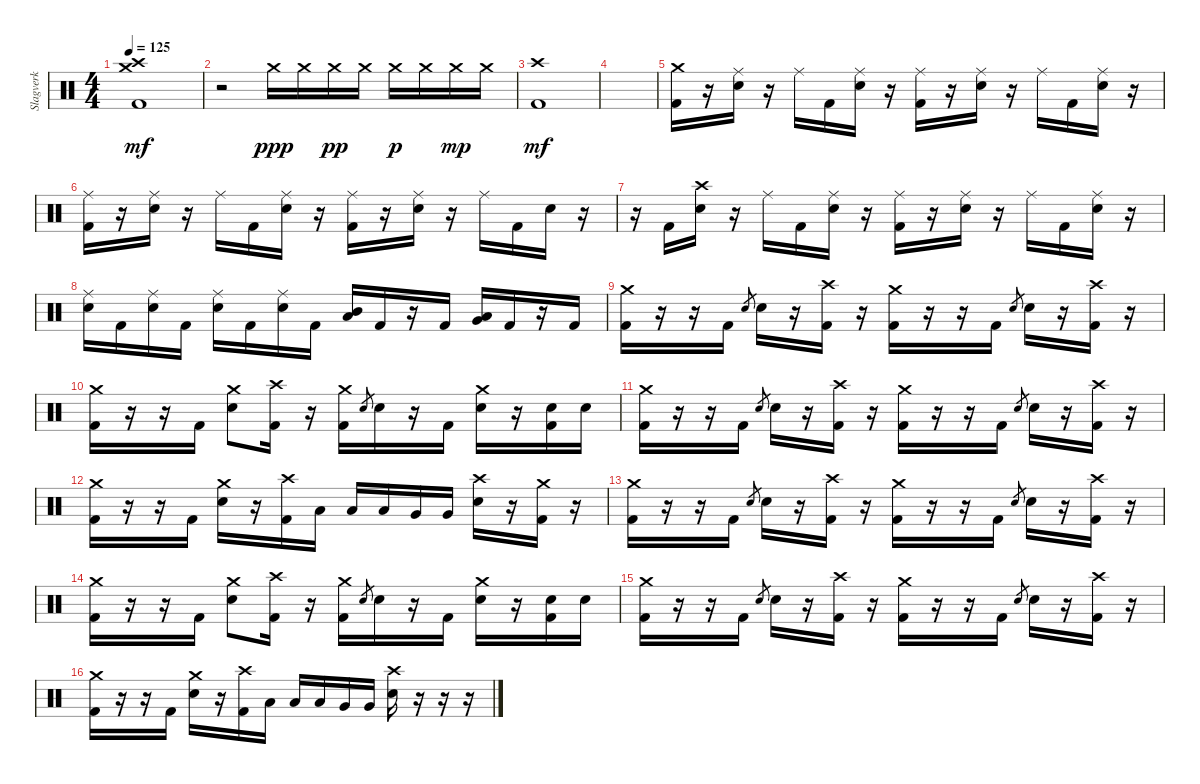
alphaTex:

\track ("Slagverk" "Slagverk") {instrument percussion}
\staff {score}
\articulation defaults
\ts (4 4)
\tempo 125
\clef neutral
\ks c
("Crash high (hit)" "Crash medium (hit)" "Kick (hit) 2").1{dy mf} |
r.2 "Crash medium (hit)".16{dy ppp} "Crash medium (hit)".16 "Crash medium (hit)".16{dy pp} "Crash medium (hit)".16 "Crash medium (hit)".16{dy p} "Crash medium (hit)".16 "Crash medium (hit)".16{dy mp} "Crash medium (hit)".16 |
("Crash high (hit)" "Kick (hit) 2").1{dy mf} |
|
("Crash medium (hit)" "Kick (hit) 2").16 r.16 ("Ride (middle)" "Electric Snare (hit)").16 r.16 "Ride (middle)".16 "Kick (hit) 2".16 ("Ride (middle)" "Electric Snare (hit)").16 r.16 ("Ride (middle)" "Kick (hit) 2").16 r.16 ("Ride (middle)" "Electric Snare (hit)").16 r.16 "Ride (middle)".16 "Kick (hit) 2".16 ("Ride (middle)" "Electric Snare (hit)").16 r.16 |
("Ride (middle)" "Kick (hit) 2").16 r.16 ("Ride (middle)" "Electric Snare (hit)").16 r.16 "Ride (middle)".16 "Kick (hit) 2".16 ("Ride (middle)" "Electric Snare (hit)").16 r.16 ("Ride (middle)" "Kick (hit) 2").16 r.16 ("Ride (middle)" "Electric Snare (hit)").16 r.16 "Ride (middle)".16 "Kick (hit) 2".16 "Electric Snare (hit)".16 r.16 |
r.16 "Kick (hit) 2".16 ("Crash high (hit)" "Electric Snare (hit)").16 r.16 "Ride (middle)".16 "Kick (hit) 2".16 ("Ride (middle)" "Electric Snare (hit)").16 r.16 ("Ride (middle)" "Kick (hit) 2").16 r.16 ("Ride (middle)" "Electric Snare (hit)").16 r.16 "Ride (middle)".16 "Kick (hit) 2".16 ("Ride (middle)" "Electric Snare (hit)").16 r.16 |
("Ride (middle)" "Electric Snare (hit)").16 "Kick (hit) 2".16 ("Ride (middle)" "Electric Snare (hit)").16 "Kick (hit) 2".16 ("Ride (middle)" "Electric Snare (hit)").16 "Kick (hit) 2".16 ("Ride (middle)" "Electric Snare (hit)").16 "Kick (hit) 2".16 ("Mid Tom (hit)" "Low Tom (hit)").16 "Kick (hit) 2".16 r.16 "Kick (hit) 2".16 ("Low Tom (hit)" "Very Low Tom (hit)").16 "Kick (hit) 2".16 r.16 "Kick (hit) 2".16 |
("Crash medium (hit)" "Kick (hit) 2").16 r.16 r.16 "Kick (hit) 2".16 "Electric Snare (hit)".8{gr} "Electric Snare (hit)".16 r.16 ("Crash high (hit)" "Kick (hit) 2").16 r.16 ("Crash medium (hit)" "Kick (hit) 2").16 r.16 r.16 "Kick (hit) 2".16 "Electric Snare (hit)".8{gr} "Electric Snare (hit)".16 r.16 ("Crash high (hit)" "Kick (hit) 2").16 r.16 |
("Crash medium (hit)" "Kick (hit) 2").16 r.16 r.16 "Kick (hit) 2".16 ("Crash medium (hit)" "Electric Snare (hit)").8 ("Crash high (hit)" "Kick (hit) 2").16 r.16 ("Crash medium (hit)" "Kick (hit) 2").16 "Electric Snare (hit)".8{gr} "Electric Snare (hit)".16 r.16 "Kick (hit) 2".16 ("Crash medium (hit)" "Electric Snare (hit)").16 r.16 ("Electric Snare (hit)" "Kick (hit) 2").16 "Electric Snare (hit)".16 |
("Crash medium (hit)" "Kick (hit) 2").16 r.16 r.16 "Kick (hit) 2".16 "Electric Snare (hit)".8{gr} "Electric Snare (hit)".16 r.16 ("Crash high (hit)" "Kick (hit) 2").16 r.16 ("Crash medium (hit)" "Kick (hit) 2").16 r.16 r.16 "Kick (hit) 2".16 "Electric Snare (hit)".8{gr} "Electric Snare (hit)".16 r.16 ("Crash high (hit)" "Kick (hit) 2").16 r.16 |
("Crash medium (hit)" "Kick (hit) 2").16 r.16 r.16 "Kick (hit) 2".16 ("Crash medium (hit)" "Electric Snare (hit)").16 r.16 ("Crash high (hit)" "Kick (hit) 2").16 "Low Tom (hit)".16 "Low Tom (hit)".16 "Low Tom (hit)".16 "Very Low Tom (hit)".16 "Very Low Tom (hit)".16 ("Crash high (hit)" "Electric Snare (hit)").16 r.16 ("Crash medium (hit)" "Kick (hit) 2").16 r.16 |
("Crash medium (hit)" "Kick (hit) 2").16 r.16 r.16 "Kick (hit) 2".16 "Electric Snare (hit)".8{gr} "Electric Snare (hit)".16 r.16 ("Crash high (hit)" "Kick (hit) 2").16 r.16 ("Crash medium (hit)" "Kick (hit) 2").16 r.16 r.16 "Kick (hit) 2".16 "Electric Snare (hit)".8{gr} "Electric Snare (hit)".16 r.16 ("Crash high (hit)" "Kick (hit) 2").16 r.16 |
("Crash medium (hit)" "Kick (hit) 2").16 r.16 r.16 "Kick (hit) 2".16 ("Crash medium (hit)" "Electric Snare (hit)").8 ("Crash high (hit)" "Kick (hit) 2").16 r.16 ("Crash medium (hit)" "Kick (hit) 2").16 "Electric Snare (hit)".8{gr} "Electric Snare (hit)".16 r.16 "Kick (hit) 2".16 ("Crash medium (hit)" "Electric Snare (hit)").16 r.16 ("Electric Snare (hit)" "Kick (hit) 2").16 "Electric Snare (hit)".16 |
("Crash medium (hit)" "Kick (hit) 2").16 r.16 r.16 "Kick (hit) 2".16 "Electric Snare (hit)".8{gr} "Electric Snare (hit)".16 r.16 ("Crash high (hit)" "Kick (hit) 2").16 r.16 ("Crash medium (hit)" "Kick (hit) 2").16 r.16 r.16 "Kick (hit) 2".16 "Electric Snare (hit)".8{gr} "Electric Snare (hit)".16 r.16 ("Crash high (hit)" "Kick (hit) 2").16 r.16 |
("Crash medium (hit)" "Kick (hit) 2").16 r.16 r.16 "Kick (hit) 2".16 ("Crash medium (hit)" "Electric Snare (hit)").16 r.16 ("Crash high (hit)" "Kick (hit) 2").16 "Low Tom (hit)".16 "Low Tom (hit)".16 "Low Tom (hit)".16 "Very Low Tom (hit)".16 "Very Low Tom (hit)".16 ("Crash high (hit)" "Electric Snare (hit)").16 r.16 r.16 r.16
